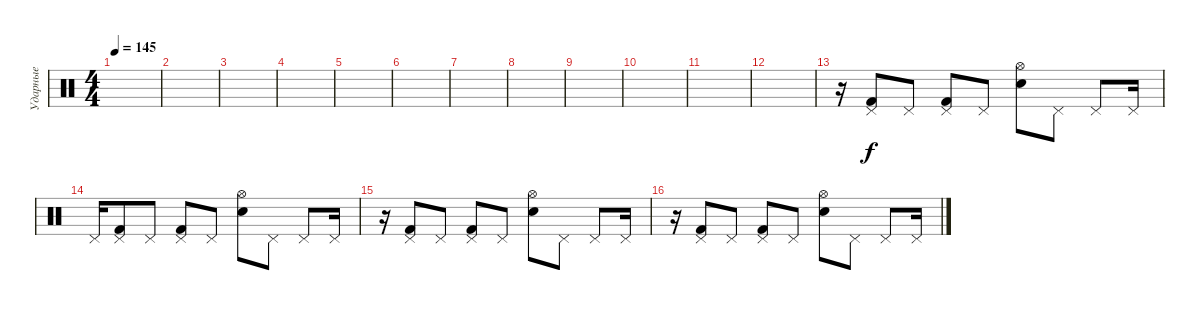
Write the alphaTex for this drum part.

\track ("Ударные" "Ударные") {instrument percussion}
\staff {score}
\articulation defaults
\ts (4 4)
\tempo 145
\clef neutral
\ks c
|
|
|
|
|
|
|
|
|
|
|
|
r.16 ("Pedal Hi-Hat (hit)" "Kick (hit) 2").8 "Pedal Hi-Hat (hit)".8 ("Pedal Hi-Hat (hit)" "Kick (hit) 2").8 "Pedal Hi-Hat (hit)".8 ("Hi-Hat (open)" "Electric Snare (hit)").8 "Pedal Hi-Hat (hit)".8 "Pedal Hi-Hat (hit)".8 "Pedal Hi-Hat (hit)".16 |
"Pedal Hi-Hat (hit)".16 ("Pedal Hi-Hat (hit)" "Kick (hit) 2").8 "Pedal Hi-Hat (hit)".8 ("Pedal Hi-Hat (hit)" "Kick (hit) 2").8 "Pedal Hi-Hat (hit)".8 ("Hi-Hat (open)" "Electric Snare (hit)").8 "Pedal Hi-Hat (hit)".8 "Pedal Hi-Hat (hit)".8 "Pedal Hi-Hat (hit)".16 |
r.16 ("Pedal Hi-Hat (hit)" "Kick (hit) 2").8 "Pedal Hi-Hat (hit)".8 ("Pedal Hi-Hat (hit)" "Kick (hit) 2").8 "Pedal Hi-Hat (hit)".8 ("Hi-Hat (open)" "Electric Snare (hit)").8 "Pedal Hi-Hat (hit)".8 "Pedal Hi-Hat (hit)".8 "Pedal Hi-Hat (hit)".16 |
r.16 ("Pedal Hi-Hat (hit)" "Kick (hit) 2").8 "Pedal Hi-Hat (hit)".8 ("Pedal Hi-Hat (hit)" "Kick (hit) 2").8 "Pedal Hi-Hat (hit)".8 ("Hi-Hat (open)" "Electric Snare (hit)").8 "Pedal Hi-Hat (hit)".8 "Pedal Hi-Hat (hit)".8 "Pedal Hi-Hat (hit)".16
